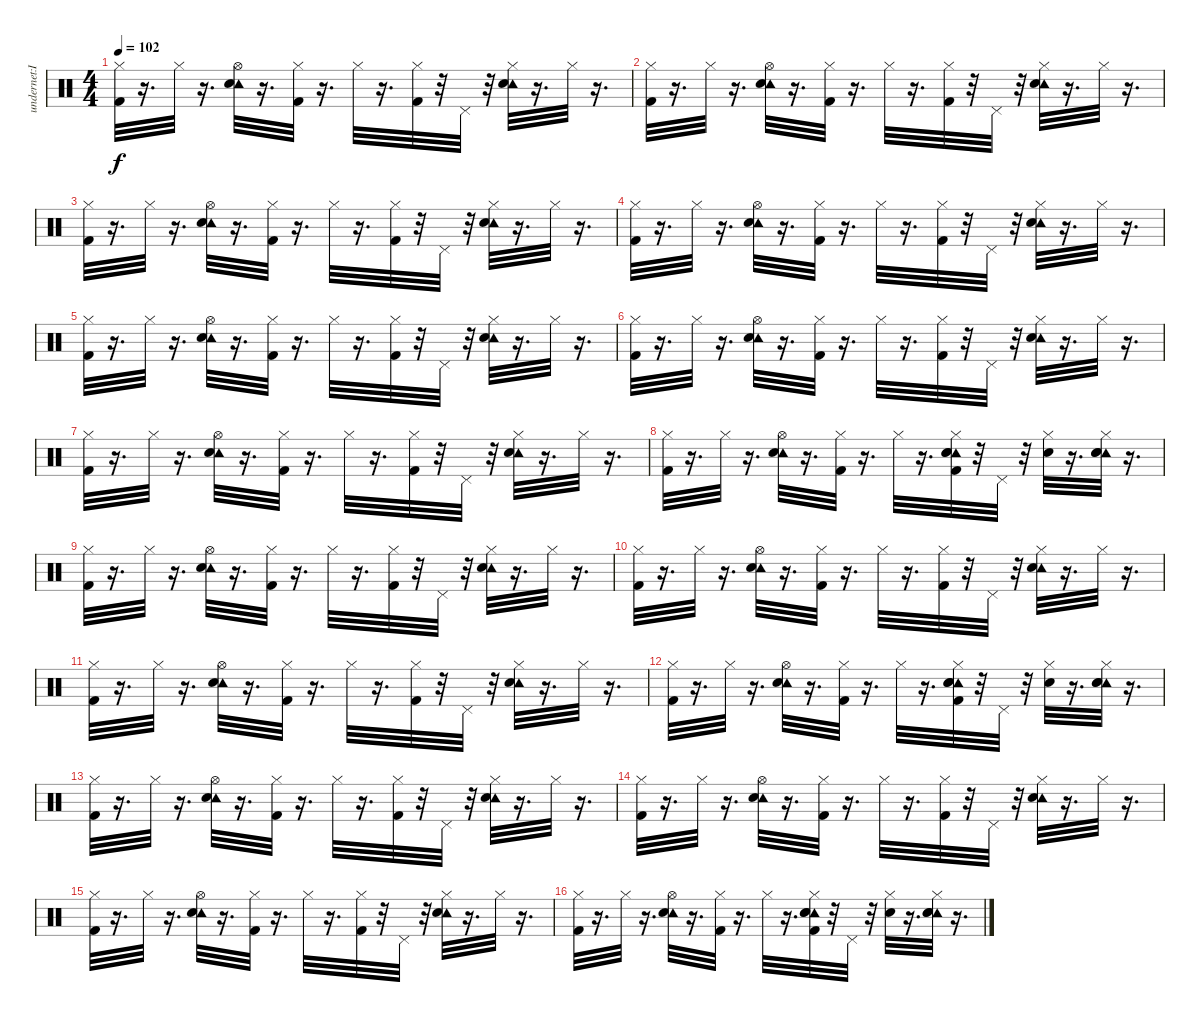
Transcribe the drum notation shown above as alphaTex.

\track ("undernet:IRC:bong21" "undernet:I") {instrument percussion}
\staff {score}
\articulation defaults
\ts (4 4)
\tempo 102
\clef neutral
\ks c
("Hi-Hat (closed)" "Kick (hit) 2").32{dy f} r.16{d} "Hi-Hat (closed)".32 r.16{d} ("Tambourine (hit)" "Hi-Hat (open)" "Electric Snare (hit)").32 r.16{d} ("Hi-Hat (closed)" "Kick (hit) 2").32 r.16{d} "Hi-Hat (closed)".32 r.16{d} ("Hi-Hat (closed)" "Kick (hit) 2").32 r.32 "Pedal Hi-Hat (hit)".32 r.32 ("Tambourine (hit)" "Hi-Hat (closed)" "Electric Snare (hit)").32 r.16{d} "Hi-Hat (closed)".32 r.16{d} |
("Hi-Hat (closed)" "Kick (hit) 2").32 r.16{d} "Hi-Hat (closed)".32 r.16{d} ("Tambourine (hit)" "Hi-Hat (open)" "Electric Snare (hit)").32 r.16{d} ("Hi-Hat (closed)" "Kick (hit) 2").32 r.16{d} "Hi-Hat (closed)".32 r.16{d} ("Hi-Hat (closed)" "Kick (hit) 2").32 r.32 "Pedal Hi-Hat (hit)".32 r.32 ("Tambourine (hit)" "Hi-Hat (closed)" "Electric Snare (hit)").32 r.16{d} "Hi-Hat (closed)".32 r.16{d} |
("Hi-Hat (closed)" "Kick (hit) 2").32 r.16{d} "Hi-Hat (closed)".32 r.16{d} ("Tambourine (hit)" "Hi-Hat (open)" "Electric Snare (hit)").32 r.16{d} ("Hi-Hat (closed)" "Kick (hit) 2").32 r.16{d} "Hi-Hat (closed)".32 r.16{d} ("Hi-Hat (closed)" "Kick (hit) 2").32 r.32 "Pedal Hi-Hat (hit)".32 r.32 ("Tambourine (hit)" "Hi-Hat (closed)" "Electric Snare (hit)").32 r.16{d} "Hi-Hat (closed)".32 r.16{d} |
("Hi-Hat (closed)" "Kick (hit) 2").32 r.16{d} "Hi-Hat (closed)".32 r.16{d} ("Tambourine (hit)" "Hi-Hat (open)" "Electric Snare (hit)").32 r.16{d} ("Hi-Hat (closed)" "Kick (hit) 2").32 r.16{d} "Hi-Hat (closed)".32 r.16{d} ("Hi-Hat (closed)" "Kick (hit) 2").32 r.32 "Pedal Hi-Hat (hit)".32 r.32 ("Tambourine (hit)" "Hi-Hat (closed)" "Electric Snare (hit)").32 r.16{d} "Hi-Hat (closed)".32 r.16{d} |
("Hi-Hat (closed)" "Kick (hit) 2").32 r.16{d} "Hi-Hat (closed)".32 r.16{d} ("Tambourine (hit)" "Hi-Hat (open)" "Electric Snare (hit)").32 r.16{d} ("Hi-Hat (closed)" "Kick (hit) 2").32 r.16{d} "Hi-Hat (closed)".32 r.16{d} ("Hi-Hat (closed)" "Kick (hit) 2").32 r.32 "Pedal Hi-Hat (hit)".32 r.32 ("Tambourine (hit)" "Hi-Hat (closed)" "Electric Snare (hit)").32 r.16{d} "Hi-Hat (closed)".32 r.16{d} |
("Hi-Hat (closed)" "Kick (hit) 2").32 r.16{d} "Hi-Hat (closed)".32 r.16{d} ("Tambourine (hit)" "Hi-Hat (open)" "Electric Snare (hit)").32 r.16{d} ("Hi-Hat (closed)" "Kick (hit) 2").32 r.16{d} "Hi-Hat (closed)".32 r.16{d} ("Hi-Hat (closed)" "Kick (hit) 2").32 r.32 "Pedal Hi-Hat (hit)".32 r.32 ("Tambourine (hit)" "Hi-Hat (closed)" "Electric Snare (hit)").32 r.16{d} "Hi-Hat (closed)".32 r.16{d} |
("Hi-Hat (closed)" "Kick (hit) 2").32 r.16{d} "Hi-Hat (closed)".32 r.16{d} ("Tambourine (hit)" "Hi-Hat (open)" "Electric Snare (hit)").32 r.16{d} ("Hi-Hat (closed)" "Kick (hit) 2").32 r.16{d} "Hi-Hat (closed)".32 r.16{d} ("Hi-Hat (closed)" "Kick (hit) 2").32 r.32 "Pedal Hi-Hat (hit)".32 r.32 ("Tambourine (hit)" "Hi-Hat (closed)" "Electric Snare (hit)").32 r.16{d} "Hi-Hat (closed)".32 r.16{d} |
("Hi-Hat (closed)" "Kick (hit) 2").32 r.16{d} "Hi-Hat (closed)".32 r.16{d} ("Tambourine (hit)" "Hi-Hat (open)" "Electric Snare (hit)").32 r.16{d} ("Hi-Hat (closed)" "Kick (hit) 2").32 r.16{d} "Hi-Hat (closed)".32 r.16{d} ("Tambourine (hit)" "Electric Snare (hit)" "Snare (hit) 2" "Hi-Hat (closed)" "Kick (hit) 2").32 r.32 "Pedal Hi-Hat (hit)".32 r.32 ("Hi-Hat (closed)" "Electric Snare (hit)").32 r.16{d} ("Tambourine (hit)" "Electric Snare (hit)" "Snare (hit) 2" "Hi-Hat (closed)").32 r.16{d} |
("Hi-Hat (closed)" "Kick (hit) 2").32 r.16{d} "Hi-Hat (closed)".32 r.16{d} ("Tambourine (hit)" "Hi-Hat (open)" "Electric Snare (hit)").32 r.16{d} ("Hi-Hat (closed)" "Kick (hit) 2").32 r.16{d} "Hi-Hat (closed)".32 r.16{d} ("Hi-Hat (closed)" "Kick (hit) 2").32 r.32 "Pedal Hi-Hat (hit)".32 r.32 ("Tambourine (hit)" "Hi-Hat (closed)" "Electric Snare (hit)").32 r.16{d} "Hi-Hat (closed)".32 r.16{d} |
("Hi-Hat (closed)" "Kick (hit) 2").32 r.16{d} "Hi-Hat (closed)".32 r.16{d} ("Tambourine (hit)" "Hi-Hat (open)" "Electric Snare (hit)").32 r.16{d} ("Hi-Hat (closed)" "Kick (hit) 2").32 r.16{d} "Hi-Hat (closed)".32 r.16{d} ("Hi-Hat (closed)" "Kick (hit) 2").32 r.32 "Pedal Hi-Hat (hit)".32 r.32 ("Tambourine (hit)" "Hi-Hat (closed)" "Electric Snare (hit)").32 r.16{d} "Hi-Hat (closed)".32 r.16{d} |
("Hi-Hat (closed)" "Kick (hit) 2").32 r.16{d} "Hi-Hat (closed)".32 r.16{d} ("Tambourine (hit)" "Hi-Hat (open)" "Electric Snare (hit)").32 r.16{d} ("Hi-Hat (closed)" "Kick (hit) 2").32 r.16{d} "Hi-Hat (closed)".32 r.16{d} ("Hi-Hat (closed)" "Kick (hit) 2").32 r.32 "Pedal Hi-Hat (hit)".32 r.32 ("Tambourine (hit)" "Hi-Hat (closed)" "Electric Snare (hit)").32 r.16{d} "Hi-Hat (closed)".32 r.16{d} |
("Hi-Hat (closed)" "Kick (hit) 2").32 r.16{d} "Hi-Hat (closed)".32 r.16{d} ("Tambourine (hit)" "Hi-Hat (open)" "Electric Snare (hit)").32 r.16{d} ("Hi-Hat (closed)" "Kick (hit) 2").32 r.16{d} "Hi-Hat (closed)".32 r.16{d} ("Tambourine (hit)" "Electric Snare (hit)" "Snare (hit) 2" "Hi-Hat (closed)" "Kick (hit) 2").32 r.32 "Pedal Hi-Hat (hit)".32 r.32 ("Hi-Hat (closed)" "Electric Snare (hit)").32 r.16{d} ("Tambourine (hit)" "Electric Snare (hit)" "Snare (hit) 2" "Hi-Hat (closed)").32 r.16{d} |
("Hi-Hat (closed)" "Kick (hit) 2").32 r.16{d} "Hi-Hat (closed)".32 r.16{d} ("Tambourine (hit)" "Hi-Hat (open)" "Electric Snare (hit)").32 r.16{d} ("Hi-Hat (closed)" "Kick (hit) 2").32 r.16{d} "Hi-Hat (closed)".32 r.16{d} ("Hi-Hat (closed)" "Kick (hit) 2").32 r.32 "Pedal Hi-Hat (hit)".32 r.32 ("Tambourine (hit)" "Hi-Hat (closed)" "Electric Snare (hit)").32 r.16{d} "Hi-Hat (closed)".32 r.16{d} |
("Hi-Hat (closed)" "Kick (hit) 2").32 r.16{d} "Hi-Hat (closed)".32 r.16{d} ("Tambourine (hit)" "Hi-Hat (open)" "Electric Snare (hit)").32 r.16{d} ("Hi-Hat (closed)" "Kick (hit) 2").32 r.16{d} "Hi-Hat (closed)".32 r.16{d} ("Hi-Hat (closed)" "Kick (hit) 2").32 r.32 "Pedal Hi-Hat (hit)".32 r.32 ("Tambourine (hit)" "Hi-Hat (closed)" "Electric Snare (hit)").32 r.16{d} "Hi-Hat (closed)".32 r.16{d} |
("Hi-Hat (closed)" "Kick (hit) 2").32 r.16{d} "Hi-Hat (closed)".32 r.16{d} ("Tambourine (hit)" "Hi-Hat (open)" "Electric Snare (hit)").32 r.16{d} ("Hi-Hat (closed)" "Kick (hit) 2").32 r.16{d} "Hi-Hat (closed)".32 r.16{d} ("Hi-Hat (closed)" "Kick (hit) 2").32 r.32 "Pedal Hi-Hat (hit)".32 r.32 ("Tambourine (hit)" "Hi-Hat (closed)" "Electric Snare (hit)").32 r.16{d} "Hi-Hat (closed)".32 r.16{d} |
("Hi-Hat (closed)" "Kick (hit) 2").32 r.16{d} "Hi-Hat (closed)".32 r.16{d} ("Tambourine (hit)" "Hi-Hat (open)" "Electric Snare (hit)").32 r.16{d} ("Hi-Hat (closed)" "Kick (hit) 2").32 r.16{d} "Hi-Hat (closed)".32 r.16{d} ("Tambourine (hit)" "Electric Snare (hit)" "Snare (hit) 2" "Hi-Hat (closed)" "Kick (hit) 2").32 r.32 "Pedal Hi-Hat (hit)".32 r.32 ("Hi-Hat (closed)" "Electric Snare (hit)").32 r.16{d} ("Tambourine (hit)" "Electric Snare (hit)" "Snare (hit) 2" "Hi-Hat (closed)").32 r.16{d}
